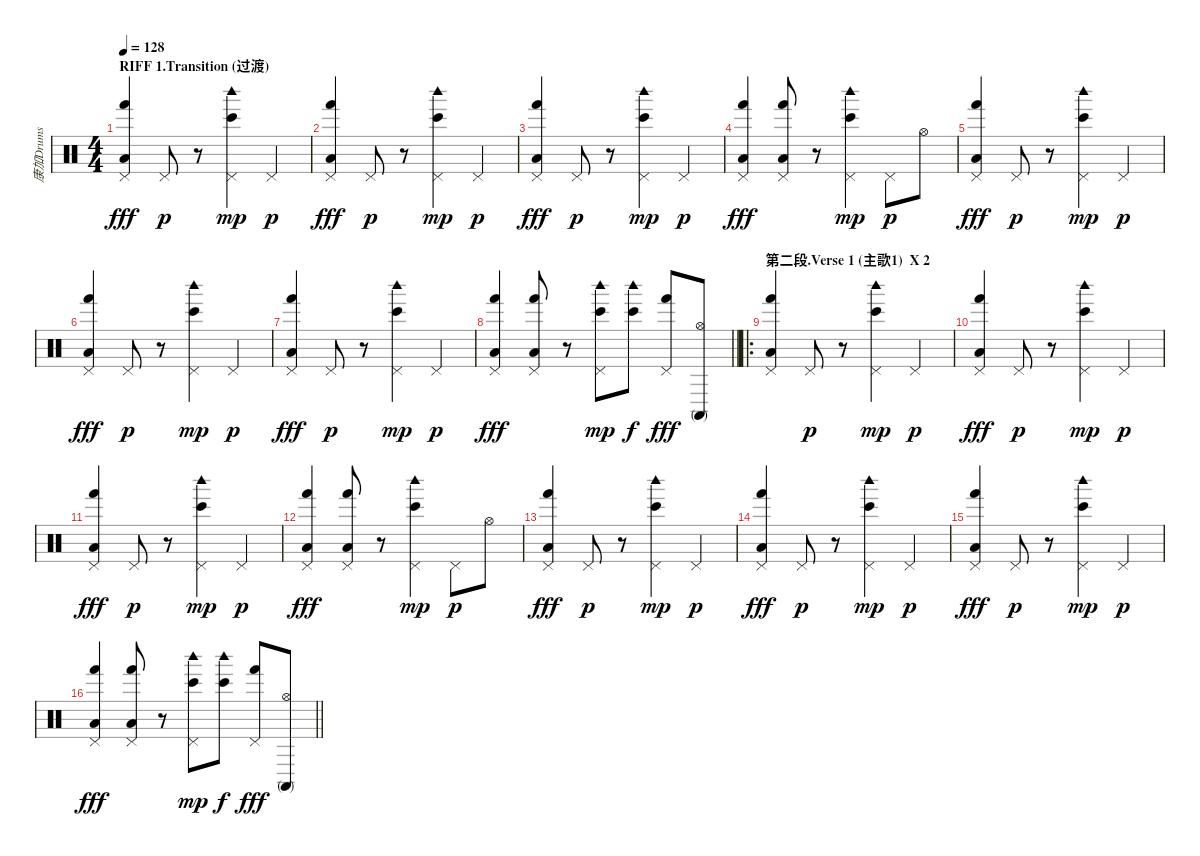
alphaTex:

\track ("康加Drums" "康加Drums") {instrument percussion}
\staff {score}
\articulation defaults
\ts (4 4)
\section ("" "RIFF 1.Transition (过渡)")
\tempo 128
\clef neutral
\ks c
("Pedal Hi-Hat (hit)" "Hand (hit)" "Low Floor Tom (hit)").4{dy fff} "Pedal Hi-Hat (hit)".8{dy p} r.8 ("Bongo High (hit)" "Woodblock high (hit)" "Pedal Hi-Hat (hit)").4{dy mp} "Pedal Hi-Hat (hit)".4{dy p} |
("Pedal Hi-Hat (hit)" "Hand (hit)" "Low Floor Tom (hit)").4{dy fff} "Pedal Hi-Hat (hit)".8{dy p} r.8 ("Bongo High (hit)" "Woodblock high (hit)" "Pedal Hi-Hat (hit)").4{dy mp} "Pedal Hi-Hat (hit)".4{dy p} |
("Pedal Hi-Hat (hit)" "Hand (hit)" "Low Floor Tom (hit)").4{dy fff} "Pedal Hi-Hat (hit)".8{dy p} r.8 ("Bongo High (hit)" "Woodblock high (hit)" "Pedal Hi-Hat (hit)").4{dy mp} "Pedal Hi-Hat (hit)".4{dy p} |
("Pedal Hi-Hat (hit)" "Hand (hit)" "Low Floor Tom (hit)").4{dy fff} ("Pedal Hi-Hat (hit)" "Hand (hit)" "Low Floor Tom (hit)").8 r.8 ("Bongo High (hit)" "Woodblock high (hit)" "Pedal Hi-Hat (hit)").4{dy mp} "Pedal Hi-Hat (hit)".8{dy p} "Hi-Hat (open)".8 |
("Pedal Hi-Hat (hit)" "Hand (hit)" "Low Floor Tom (hit)").4{dy fff} "Pedal Hi-Hat (hit)".8{dy p} r.8 ("Bongo High (hit)" "Woodblock high (hit)" "Pedal Hi-Hat (hit)").4{dy mp} "Pedal Hi-Hat (hit)".4{dy p} |
("Pedal Hi-Hat (hit)" "Hand (hit)" "Low Floor Tom (hit)").4{dy fff} "Pedal Hi-Hat (hit)".8{dy p} r.8 ("Bongo High (hit)" "Woodblock high (hit)" "Pedal Hi-Hat (hit)").4{dy mp} "Pedal Hi-Hat (hit)".4{dy p} |
("Pedal Hi-Hat (hit)" "Hand (hit)" "Low Floor Tom (hit)").4{dy fff} "Pedal Hi-Hat (hit)".8{dy p} r.8 ("Bongo High (hit)" "Woodblock high (hit)" "Pedal Hi-Hat (hit)").4{dy mp} "Pedal Hi-Hat (hit)".4{dy p} |
\barLineRight lightlight
("Pedal Hi-Hat (hit)" "Hand (hit)" "Low Floor Tom (hit)").4{dy fff} ("Pedal Hi-Hat (hit)" "Hand (hit)" "Low Floor Tom (hit)").8 r.8 ("Bongo High (hit)" "Woodblock high (hit)" "Pedal Hi-Hat (hit)").8{dy mp} ("Bongo High (hit)" "Woodblock high (hit)").8{dy f} ("Pedal Hi-Hat (hit)" "Hand (hit)").8{dy fff} ("Hi-Hat (open)" "Conga high (mute)").8 |
\ro
\section ("" "第二段.Verse 1 (主歌1)  X 2")
("Pedal Hi-Hat (hit)" "Hand (hit)" "Low Floor Tom (hit)").4 "Pedal Hi-Hat (hit)".8{dy p} r.8 ("Bongo High (hit)" "Woodblock high (hit)" "Pedal Hi-Hat (hit)").4{dy mp} "Pedal Hi-Hat (hit)".4{dy p} |
("Pedal Hi-Hat (hit)" "Hand (hit)" "Low Floor Tom (hit)").4{dy fff} "Pedal Hi-Hat (hit)".8{dy p} r.8 ("Bongo High (hit)" "Woodblock high (hit)" "Pedal Hi-Hat (hit)").4{dy mp} "Pedal Hi-Hat (hit)".4{dy p} |
("Pedal Hi-Hat (hit)" "Hand (hit)" "Low Floor Tom (hit)").4{dy fff} "Pedal Hi-Hat (hit)".8{dy p} r.8 ("Bongo High (hit)" "Woodblock high (hit)" "Pedal Hi-Hat (hit)").4{dy mp} "Pedal Hi-Hat (hit)".4{dy p} |
("Pedal Hi-Hat (hit)" "Hand (hit)" "Low Floor Tom (hit)").4{dy fff} ("Pedal Hi-Hat (hit)" "Hand (hit)" "Low Floor Tom (hit)").8 r.8 ("Bongo High (hit)" "Woodblock high (hit)" "Pedal Hi-Hat (hit)").4{dy mp} "Pedal Hi-Hat (hit)".8{dy p} "Hi-Hat (open)".8 |
("Pedal Hi-Hat (hit)" "Hand (hit)" "Low Floor Tom (hit)").4{dy fff} "Pedal Hi-Hat (hit)".8{dy p} r.8 ("Bongo High (hit)" "Woodblock high (hit)" "Pedal Hi-Hat (hit)").4{dy mp} "Pedal Hi-Hat (hit)".4{dy p} |
("Pedal Hi-Hat (hit)" "Hand (hit)" "Low Floor Tom (hit)").4{dy fff} "Pedal Hi-Hat (hit)".8{dy p} r.8 ("Bongo High (hit)" "Woodblock high (hit)" "Pedal Hi-Hat (hit)").4{dy mp} "Pedal Hi-Hat (hit)".4{dy p} |
("Pedal Hi-Hat (hit)" "Hand (hit)" "Low Floor Tom (hit)").4{dy fff} "Pedal Hi-Hat (hit)".8{dy p} r.8 ("Bongo High (hit)" "Woodblock high (hit)" "Pedal Hi-Hat (hit)").4{dy mp} "Pedal Hi-Hat (hit)".4{dy p} |
\barLineRight lightlight
("Pedal Hi-Hat (hit)" "Hand (hit)" "Low Floor Tom (hit)").4{dy fff} ("Pedal Hi-Hat (hit)" "Hand (hit)" "Low Floor Tom (hit)").8 r.8 ("Bongo High (hit)" "Woodblock high (hit)" "Pedal Hi-Hat (hit)").8{dy mp} ("Bongo High (hit)" "Woodblock high (hit)").8{dy f} ("Pedal Hi-Hat (hit)" "Hand (hit)").8{dy fff} ("Hi-Hat (open)" "Conga high (mute)").8
